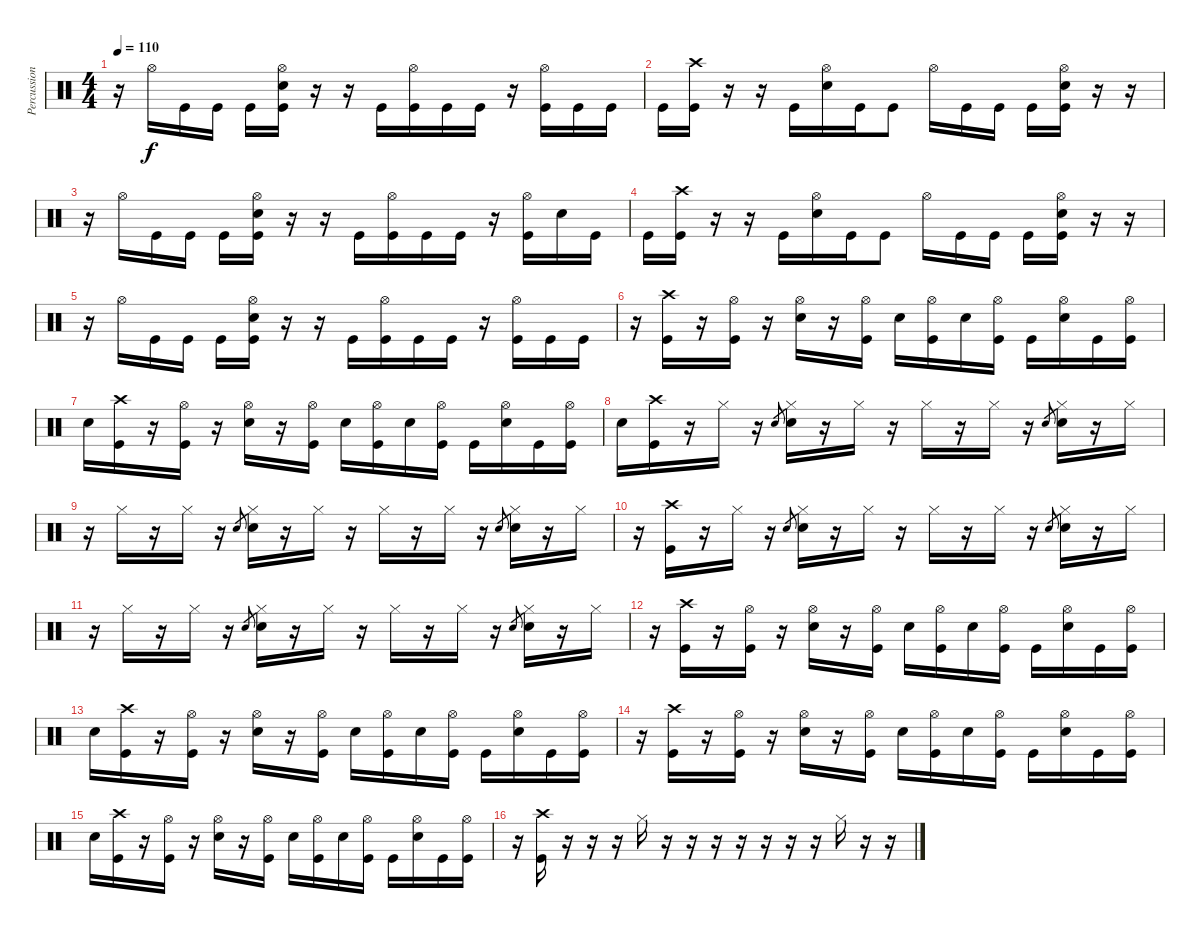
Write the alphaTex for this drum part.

\track ("Percussion" "Percussion") {instrument percussion}
\staff {score}
\articulation defaults
\ts (4 4)
\tempo 110
\clef neutral
\ks c
r.16{dy f} "Hi-Hat (open)".16 "Kick (hit)".16 "Kick (hit)".16 "Kick (hit)".16 ("Hi-Hat (open)" "Electric Snare (hit)" "Kick (hit)").16 r.16 r.16 "Kick (hit)".16 ("Hi-Hat (open)" "Kick (hit)").16 "Kick (hit)".16 "Kick (hit)".16 r.16 ("Hi-Hat (open)" "Kick (hit)").16 "Kick (hit)".16 "Kick (hit)".16 |
"Kick (hit)".16 ("Crash high (hit)" "Kick (hit)").16 r.16 r.16 "Kick (hit)".16 ("Hi-Hat (open)" "Electric Snare (hit)").16 "Kick (hit)".16 "Kick (hit)".8 "Hi-Hat (open)".16 "Kick (hit)".16 "Kick (hit)".16 "Kick (hit)".16 ("Hi-Hat (open)" "Electric Snare (hit)" "Kick (hit)").16 r.16 r.16 |
r.16 "Hi-Hat (open)".16 "Kick (hit)".16 "Kick (hit)".16 "Kick (hit)".16 ("Hi-Hat (open)" "Electric Snare (hit)" "Kick (hit)").16 r.16 r.16 "Kick (hit)".16 ("Hi-Hat (open)" "Kick (hit)").16 "Kick (hit)".16 "Kick (hit)".16 r.16 ("Hi-Hat (open)" "Kick (hit)").16 "Electric Snare (hit)".16 "Kick (hit)".16 |
"Kick (hit)".16 ("Crash high (hit)" "Kick (hit)").16 r.16 r.16 "Kick (hit)".16 ("Hi-Hat (open)" "Electric Snare (hit)").16 "Kick (hit)".16 "Kick (hit)".8 "Hi-Hat (open)".16 "Kick (hit)".16 "Kick (hit)".16 "Kick (hit)".16 ("Hi-Hat (open)" "Electric Snare (hit)" "Kick (hit)").16 r.16 r.16 |
r.16 "Hi-Hat (open)".16 "Kick (hit)".16 "Kick (hit)".16 "Kick (hit)".16 ("Hi-Hat (open)" "Electric Snare (hit)" "Kick (hit)").16 r.16 r.16 "Kick (hit)".16 ("Hi-Hat (open)" "Kick (hit)").16 "Kick (hit)".16 "Kick (hit)".16 r.16 ("Hi-Hat (open)" "Kick (hit)").16 "Kick (hit)".16 "Kick (hit)".16 |
r.16 ("Crash high (hit)" "Kick (hit)").16 r.16 ("Hi-Hat (open)" "Kick (hit)").16 r.16 ("Hi-Hat (open)" "Electric Snare (hit)").16 r.16 ("Hi-Hat (open)" "Kick (hit)").16 "Electric Snare (hit)".16 ("Hi-Hat (open)" "Kick (hit)").16 "Electric Snare (hit)".16 ("Hi-Hat (open)" "Kick (hit)").16 "Kick (hit)".16 ("Hi-Hat (open)" "Electric Snare (hit)").16 "Kick (hit)".16 ("Hi-Hat (open)" "Kick (hit)").16 |
"Electric Snare (hit)".16 ("Crash high (hit)" "Kick (hit)").16 r.16 ("Hi-Hat (open)" "Kick (hit)").16 r.16 ("Hi-Hat (open)" "Electric Snare (hit)").16 r.16 ("Hi-Hat (open)" "Kick (hit)").16 "Electric Snare (hit)".16 ("Hi-Hat (open)" "Kick (hit)").16 "Electric Snare (hit)".16 ("Hi-Hat (open)" "Kick (hit)").16 "Kick (hit)".16 ("Hi-Hat (open)" "Electric Snare (hit)").16 "Kick (hit)".16 ("Hi-Hat (open)" "Kick (hit)").16 |
"Electric Snare (hit)".16 ("Crash high (hit)" "Kick (hit)").16 r.16 "Hi-Hat (closed)".16 r.16 "Electric Snare (hit)".8{gr} ("Hi-Hat (closed)" "Electric Snare (hit)").16 r.16 "Hi-Hat (closed)".16 r.16 "Hi-Hat (closed)".16 r.16 "Hi-Hat (closed)".16 r.16 "Electric Snare (hit)".8{gr} ("Hi-Hat (closed)" "Electric Snare (hit)").16 r.16 "Hi-Hat (closed)".16 |
r.16 "Hi-Hat (closed)".16 r.16 "Hi-Hat (closed)".16 r.16 "Electric Snare (hit)".8{gr} ("Hi-Hat (closed)" "Electric Snare (hit)").16 r.16 "Hi-Hat (closed)".16 r.16 "Hi-Hat (closed)".16 r.16 "Hi-Hat (closed)".16 r.16 "Electric Snare (hit)".8{gr} ("Hi-Hat (closed)" "Electric Snare (hit)").16 r.16 "Hi-Hat (closed)".16 |
r.16 ("Crash high (hit)" "Kick (hit)").16 r.16 "Hi-Hat (closed)".16 r.16 "Electric Snare (hit)".8{gr} ("Hi-Hat (closed)" "Electric Snare (hit)").16 r.16 "Hi-Hat (closed)".16 r.16 "Hi-Hat (closed)".16 r.16 "Hi-Hat (closed)".16 r.16 "Electric Snare (hit)".8{gr} ("Hi-Hat (closed)" "Electric Snare (hit)").16 r.16 "Hi-Hat (closed)".16 |
r.16 "Hi-Hat (closed)".16 r.16 "Hi-Hat (closed)".16 r.16 "Electric Snare (hit)".8{gr} ("Hi-Hat (closed)" "Electric Snare (hit)").16 r.16 "Hi-Hat (closed)".16 r.16 "Hi-Hat (closed)".16 r.16 "Hi-Hat (closed)".16 r.16 "Electric Snare (hit)".8{gr} ("Hi-Hat (closed)" "Electric Snare (hit)").16 r.16 "Hi-Hat (closed)".16 |
r.16 ("Crash high (hit)" "Kick (hit)").16 r.16 ("Hi-Hat (open)" "Kick (hit)").16 r.16 ("Hi-Hat (open)" "Electric Snare (hit)").16 r.16 ("Hi-Hat (open)" "Kick (hit)").16 "Electric Snare (hit)".16 ("Hi-Hat (open)" "Kick (hit)").16 "Electric Snare (hit)".16 ("Hi-Hat (open)" "Kick (hit)").16 "Kick (hit)".16 ("Hi-Hat (open)" "Electric Snare (hit)").16 "Kick (hit)".16 ("Hi-Hat (open)" "Kick (hit)").16 |
"Electric Snare (hit)".16 ("Crash high (hit)" "Kick (hit)").16 r.16 ("Hi-Hat (open)" "Kick (hit)").16 r.16 ("Hi-Hat (open)" "Electric Snare (hit)").16 r.16 ("Hi-Hat (open)" "Kick (hit)").16 "Electric Snare (hit)".16 ("Hi-Hat (open)" "Kick (hit)").16 "Electric Snare (hit)".16 ("Hi-Hat (open)" "Kick (hit)").16 "Kick (hit)".16 ("Hi-Hat (open)" "Electric Snare (hit)").16 "Kick (hit)".16 ("Hi-Hat (open)" "Kick (hit)").16 |
r.16 ("Crash high (hit)" "Kick (hit)").16 r.16 ("Hi-Hat (open)" "Kick (hit)").16 r.16 ("Hi-Hat (open)" "Electric Snare (hit)").16 r.16 ("Hi-Hat (open)" "Kick (hit)").16 "Electric Snare (hit)".16 ("Hi-Hat (open)" "Kick (hit)").16 "Electric Snare (hit)".16 ("Hi-Hat (open)" "Kick (hit)").16 "Kick (hit)".16 ("Hi-Hat (open)" "Electric Snare (hit)").16 "Kick (hit)".16 ("Hi-Hat (open)" "Kick (hit)").16 |
"Electric Snare (hit)".16 ("Crash high (hit)" "Kick (hit)").16 r.16 ("Hi-Hat (open)" "Kick (hit)").16 r.16 ("Hi-Hat (open)" "Electric Snare (hit)").16 r.16 ("Hi-Hat (open)" "Kick (hit)").16 "Electric Snare (hit)".16 ("Hi-Hat (open)" "Kick (hit)").16 "Electric Snare (hit)".16 ("Hi-Hat (open)" "Kick (hit)").16 "Kick (hit)".16 ("Hi-Hat (open)" "Electric Snare (hit)").16 "Kick (hit)".16 ("Hi-Hat (open)" "Kick (hit)").16 |
r.16 ("Crash high (hit)" "Kick (hit)").16 r.16 r.16 r.16 "Hi-Hat (closed)".16 r.16 r.16 r.16 r.16 r.16 r.16 r.16 "Hi-Hat (closed)".16 r.16 r.16
